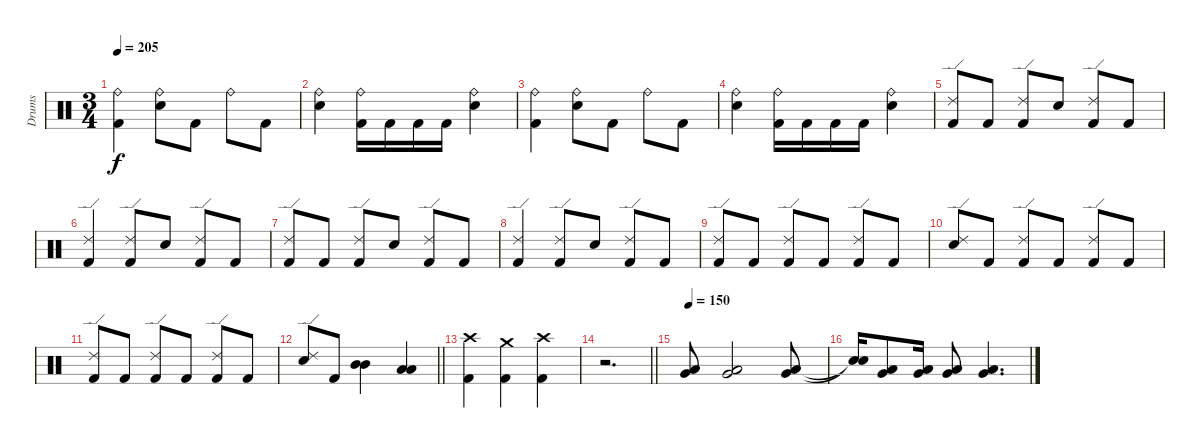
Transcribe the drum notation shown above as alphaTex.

\track ("Drums" "Drums") {instrument percussion}
\staff {score}
\articulation defaults
\ts (3 4)
\tempo 205
\clef neutral
\ks c
("Ride (bell)" "Kick (hit) 2").4{dy f} ("Ride (bell)" "Electric Snare (hit)").8 "Kick (hit) 2".8 "Ride (bell)".8 "Kick (hit) 2".8 |
("Ride (bell)" "Electric Snare (hit)").4 ("Ride (bell)" "Kick (hit) 2").16 "Kick (hit) 2".16 "Kick (hit) 2".16 "Kick (hit) 2".16 ("Ride (bell)" "Electric Snare (hit)").4 |
("Ride (bell)" "Kick (hit) 2").4 ("Ride (bell)" "Electric Snare (hit)").8 "Kick (hit) 2".8 "Ride (bell)".8 "Kick (hit) 2".8 |
("Ride (bell)" "Electric Snare (hit)").4 ("Ride (bell)" "Kick (hit) 2").16 "Kick (hit) 2".16 "Kick (hit) 2".16 "Kick (hit) 2".16 ("Ride (bell)" "Electric Snare (hit)").4 |
("Ride (edge) 2" "Kick (hit) 2").8 "Kick (hit) 2".8 ("Ride (edge) 2" "Kick (hit) 2").8 "Electric Snare (hit)".8 ("Ride (edge) 2" "Kick (hit) 2").8 "Kick (hit) 2".8 |
("Ride (edge) 2" "Kick (hit) 2").4 ("Ride (edge) 2" "Kick (hit) 2").8 "Electric Snare (hit)".8 ("Ride (edge) 2" "Kick (hit) 2").8 "Kick (hit) 2".8 |
("Ride (edge) 2" "Kick (hit) 2").8 "Kick (hit) 2".8 ("Ride (edge) 2" "Kick (hit) 2").8 "Electric Snare (hit)".8 ("Ride (edge) 2" "Kick (hit) 2").8 "Kick (hit) 2".8 |
("Ride (edge) 2" "Kick (hit) 2").4 ("Ride (edge) 2" "Kick (hit) 2").8 "Electric Snare (hit)".8 ("Ride (edge) 2" "Kick (hit) 2").8 "Kick (hit) 2".8 |
("Ride (edge) 2" "Kick (hit) 2").8 "Kick (hit) 2".8 ("Ride (edge) 2" "Kick (hit) 2").8 "Kick (hit) 2".8 ("Ride (edge) 2" "Kick (hit) 2").8 "Kick (hit) 2".8 |
("Ride (edge) 2" "Electric Snare (hit)").8 "Kick (hit) 2".8 ("Ride (edge) 2" "Kick (hit) 2").8 "Kick (hit) 2".8 ("Ride (edge) 2" "Kick (hit) 2").8 "Kick (hit) 2".8 |
("Ride (edge) 2" "Kick (hit) 2").8 "Kick (hit) 2".8 ("Ride (edge) 2" "Kick (hit) 2").8 "Kick (hit) 2".8 ("Ride (edge) 2" "Kick (hit) 2").8 "Kick (hit) 2".8 |
\barLineRight lightlight
("Ride (edge) 2" "Electric Snare (hit)").8 "Kick (hit) 2".8 ("Mid Tom (hit)" "Mid Tom (hit)").4{bu 120} ("Low Tom (hit)" "Low Tom (hit)").4{bu 120} |
\section ("" "")
("Crash high (hit)" "Kick (hit) 2").4 ("Crash medium (hit)" "Kick (hit) 2").4 ("Crash high (hit)" "Kick (hit) 2").4 |
\barLineRight lightlight
r.2{d volume 0} |
\section ("" "")
\tempo 150
("Very Low Tom (hit)" "Low Floor Tom (hit)").8{bu 120 volume 14} ("Very Low Tom (hit)" "Low Floor Tom (hit)").2{bu 120} ("Very Low Tom (hit)" "Low Floor Tom (hit)").8{bu 120} |
("Snare (hit)"{t} "Snare (hit)"{t}).16 ("Very Low Tom (hit)" "Low Floor Tom (hit)").8{bu 120} ("Very Low Tom (hit)" "Low Floor Tom (hit)").16{bu 120} ("Very Low Tom (hit)" "Low Floor Tom (hit)").8{bu 120} ("Very Low Tom (hit)" "Low Floor Tom (hit)").4{d bu 120}
